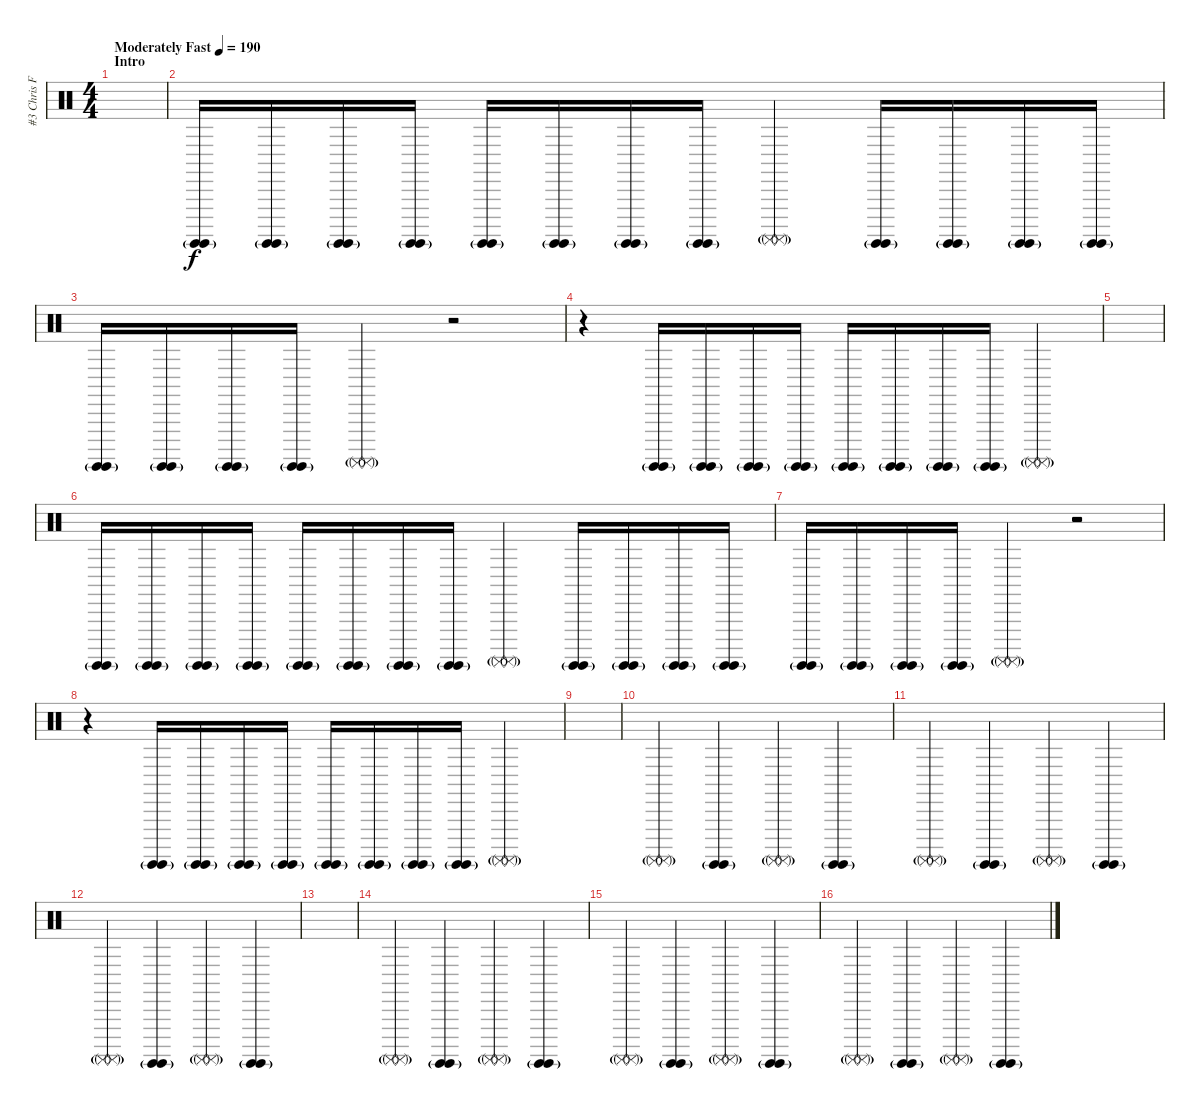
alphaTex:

\track ("#3 Chris Fehn" "#3 Chris F") {instrument percussion}
\staff {score}
\articulation defaults
\ts (4 4)
\section ("" "Intro")
\tempo (190 "Moderately Fast")
\clef neutral
\ks c
|
("Surdo (hit)"{g} "Surdo (hit)"{g}).16 ("Surdo (hit)"{g} "Surdo (hit)"{g}).16 ("Surdo (hit)"{g} "Surdo (hit)"{g}).16 ("Surdo (hit)"{g} "Surdo (hit)"{g}).16 ("Surdo (hit)"{g} "Surdo (hit)"{g}).16 ("Surdo (hit)"{g} "Surdo (hit)"{g}).16 ("Surdo (hit)"{g} "Surdo (hit)"{g}).16 ("Surdo (hit)"{g} "Surdo (hit)"{g}).16 ("Surdo (mute)"{g} "Surdo (mute)"{g}).4 ("Surdo (hit)"{g} "Surdo (hit)"{g}).16 ("Surdo (hit)"{g} "Surdo (hit)"{g}).16 ("Surdo (hit)"{g} "Surdo (hit)"{g}).16 ("Surdo (hit)"{g} "Surdo (hit)"{g}).16 |
("Surdo (hit)"{g} "Surdo (hit)"{g}).16 ("Surdo (hit)"{g} "Surdo (hit)"{g}).16 ("Surdo (hit)"{g} "Surdo (hit)"{g}).16 ("Surdo (hit)"{g} "Surdo (hit)"{g}).16 ("Surdo (mute)"{g} "Surdo (mute)"{g}).4 r.2 |
r.4 ("Surdo (hit)"{g} "Surdo (hit)"{g}).16 ("Surdo (hit)"{g} "Surdo (hit)"{g}).16 ("Surdo (hit)"{g} "Surdo (hit)"{g}).16 ("Surdo (hit)"{g} "Surdo (hit)"{g}).16 ("Surdo (hit)"{g} "Surdo (hit)"{g}).16 ("Surdo (hit)"{g} "Surdo (hit)"{g}).16 ("Surdo (hit)"{g} "Surdo (hit)"{g}).16 ("Surdo (hit)"{g} "Surdo (hit)"{g}).16 ("Surdo (mute)"{g} "Surdo (mute)"{g}).4 |
|
("Surdo (hit)"{g} "Surdo (hit)"{g}).16 ("Surdo (hit)"{g} "Surdo (hit)"{g}).16 ("Surdo (hit)"{g} "Surdo (hit)"{g}).16 ("Surdo (hit)"{g} "Surdo (hit)"{g}).16 ("Surdo (hit)"{g} "Surdo (hit)"{g}).16 ("Surdo (hit)"{g} "Surdo (hit)"{g}).16 ("Surdo (hit)"{g} "Surdo (hit)"{g}).16 ("Surdo (hit)"{g} "Surdo (hit)"{g}).16 ("Surdo (mute)"{g} "Surdo (mute)"{g}).4 ("Surdo (hit)"{g} "Surdo (hit)"{g}).16 ("Surdo (hit)"{g} "Surdo (hit)"{g}).16 ("Surdo (hit)"{g} "Surdo (hit)"{g}).16 ("Surdo (hit)"{g} "Surdo (hit)"{g}).16 |
("Surdo (hit)"{g} "Surdo (hit)"{g}).16 ("Surdo (hit)"{g} "Surdo (hit)"{g}).16 ("Surdo (hit)"{g} "Surdo (hit)"{g}).16 ("Surdo (hit)"{g} "Surdo (hit)"{g}).16 ("Surdo (mute)"{g} "Surdo (mute)"{g}).4 r.2 |
r.4 ("Surdo (hit)"{g} "Surdo (hit)"{g}).16 ("Surdo (hit)"{g} "Surdo (hit)"{g}).16 ("Surdo (hit)"{g} "Surdo (hit)"{g}).16 ("Surdo (hit)"{g} "Surdo (hit)"{g}).16 ("Surdo (hit)"{g} "Surdo (hit)"{g}).16 ("Surdo (hit)"{g} "Surdo (hit)"{g}).16 ("Surdo (hit)"{g} "Surdo (hit)"{g}).16 ("Surdo (hit)"{g} "Surdo (hit)"{g}).16 ("Surdo (mute)"{g} "Surdo (mute)"{g}).4 |
|
("Surdo (mute)"{g} "Surdo (mute)"{g}).4 ("Surdo (hit)"{g} "Surdo (hit)"{g}).4 ("Surdo (mute)"{g} "Surdo (mute)"{g}).4 ("Surdo (hit)"{g} "Surdo (hit)"{g}).4 |
("Surdo (mute)"{g} "Surdo (mute)"{g}).4 ("Surdo (hit)"{g} "Surdo (hit)"{g}).4 ("Surdo (mute)"{g} "Surdo (mute)"{g}).4 ("Surdo (hit)"{g} "Surdo (hit)"{g}).4 |
("Surdo (mute)"{g} "Surdo (mute)"{g}).4 ("Surdo (hit)"{g} "Surdo (hit)"{g}).4 ("Surdo (mute)"{g} "Surdo (mute)"{g}).4 ("Surdo (hit)"{g} "Surdo (hit)"{g}).4 |
|
("Surdo (mute)"{g} "Surdo (mute)"{g}).4 ("Surdo (hit)"{g} "Surdo (hit)"{g}).4 ("Surdo (mute)"{g} "Surdo (mute)"{g}).4 ("Surdo (hit)"{g} "Surdo (hit)"{g}).4 |
("Surdo (mute)"{g} "Surdo (mute)"{g}).4 ("Surdo (hit)"{g} "Surdo (hit)"{g}).4 ("Surdo (mute)"{g} "Surdo (mute)"{g}).4 ("Surdo (hit)"{g} "Surdo (hit)"{g}).4 |
("Surdo (mute)"{g} "Surdo (mute)"{g}).4 ("Surdo (hit)"{g} "Surdo (hit)"{g}).4 ("Surdo (mute)"{g} "Surdo (mute)"{g}).4 ("Surdo (hit)"{g} "Surdo (hit)"{g}).4
